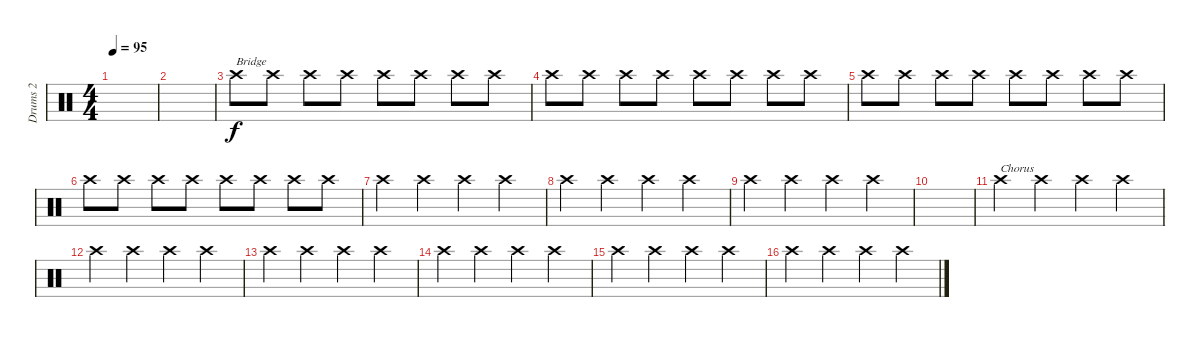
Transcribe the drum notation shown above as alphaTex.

\track ("Drums 2" "Drums 2") {instrument percussion}
\staff {score}
\articulation defaults
\ts (4 4)
\tempo 95
\clef neutral
\ks c
|
|
"Crash high (hit)".8{txt "Bridge"} "Crash high (hit)".8 "Crash high (hit)".8 "Crash high (hit)".8 "Crash high (hit)".8 "Crash high (hit)".8 "Crash high (hit)".8 "Crash high (hit)".8 |
"Crash high (hit)".8 "Crash high (hit)".8 "Crash high (hit)".8 "Crash high (hit)".8 "Crash high (hit)".8 "Crash high (hit)".8 "Crash high (hit)".8 "Crash high (hit)".8 |
"Crash high (hit)".8 "Crash high (hit)".8 "Crash high (hit)".8 "Crash high (hit)".8 "Crash high (hit)".8 "Crash high (hit)".8 "Crash high (hit)".8 "Crash high (hit)".8 |
"Crash high (hit)".8 "Crash high (hit)".8 "Crash high (hit)".8 "Crash high (hit)".8 "Crash high (hit)".8 "Crash high (hit)".8 "Crash high (hit)".8 "Crash high (hit)".8 |
"Crash high (hit)".4 "Crash high (hit)".4 "Crash high (hit)".4 "Crash high (hit)".4 |
"Crash high (hit)".4 "Crash high (hit)".4 "Crash high (hit)".4 "Crash high (hit)".4 |
"Crash high (hit)".4 "Crash high (hit)".4 "Crash high (hit)".4 "Crash high (hit)".4 |
|
"Crash high (hit)".4{txt "Chorus"} "Crash high (hit)".4 "Crash high (hit)".4 "Crash high (hit)".4 |
"Crash high (hit)".4 "Crash high (hit)".4 "Crash high (hit)".4 "Crash high (hit)".4 |
"Crash high (hit)".4 "Crash high (hit)".4 "Crash high (hit)".4 "Crash high (hit)".4 |
"Crash high (hit)".4 "Crash high (hit)".4 "Crash high (hit)".4 "Crash high (hit)".4 |
"Crash high (hit)".4 "Crash high (hit)".4 "Crash high (hit)".4 "Crash high (hit)".4 |
"Crash high (hit)".4 "Crash high (hit)".4 "Crash high (hit)".4 "Crash high (hit)".4
